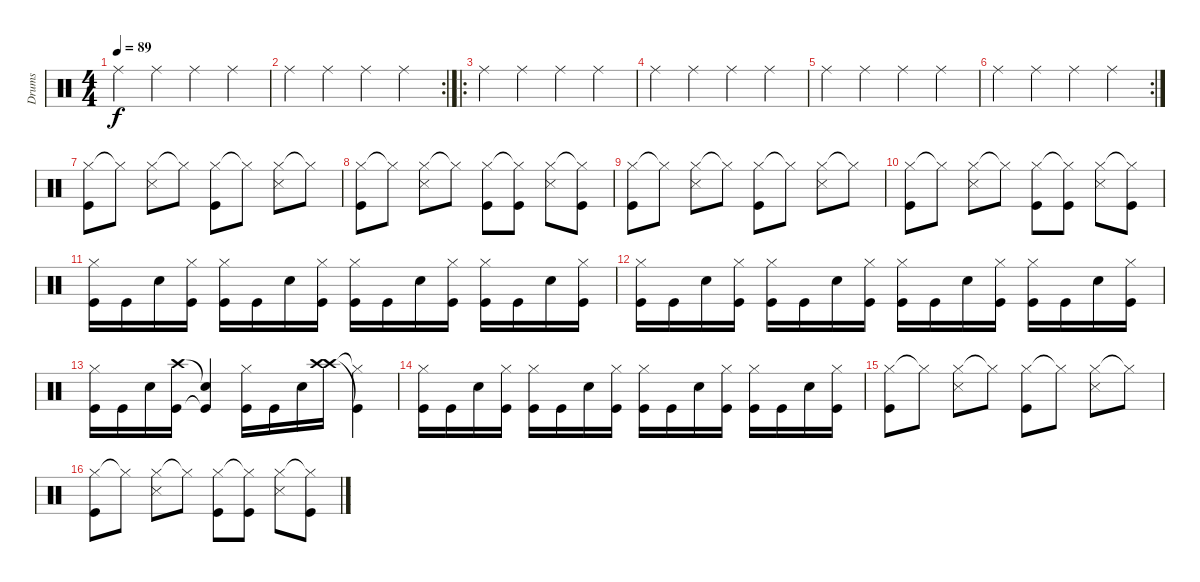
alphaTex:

\track ("Drums" "Drums") {instrument percussion}
\staff {score}
\articulation defaults
\ts (4 4)
\tempo 89
\clef neutral
\ks c "Ride (middle)".4{dy f} "Ride (middle)".4 "Ride (middle)".4 "Ride (middle)".4
|
\rc 2 "Ride (middle)".4 "Ride (middle)".4 "Ride (middle)".4 "Ride (middle)".4
|
\ro "Ride (middle)".4 "Ride (middle)".4 "Ride (middle)".4 "Ride (middle)".4
|
"Ride (middle)".4 "Ride (middle)".4 "Ride (middle)".4 "Ride (middle)".4 |
"Ride (middle)".4 "Ride (middle)".4 "Ride (middle)".4 "Ride (middle)".4 |
\rc 2 "Ride (middle)".4 "Ride (middle)".4 "Ride (middle)".4 "Ride (middle)".4
|
("Hi-Hat (closed)" "Kick (hit)").8 "Hi-Hat (closed)"{t}.8 ("Hi-Hat (closed)" "Snare (side stick) 3").8 "Hi-Hat (closed)"{t}.8 ("Hi-Hat (closed)" "Kick (hit)").8 "Hi-Hat (closed)"{t}.8 ("Hi-Hat (closed)" "Snare (side stick) 3").8 "Hi-Hat (closed)"{t}.8 |
("Hi-Hat (closed)" "Kick (hit)").8 "Hi-Hat (closed)"{t}.8 ("Hi-Hat (closed)" "Snare (side stick) 3").8 "Hi-Hat (closed)"{t}.8 ("Hi-Hat (closed)" "Kick (hit)").8 ("Hi-Hat (closed)"{t} "Kick (hit)").8 ("Hi-Hat (closed)" "Snare (side stick) 3").8 ("Hi-Hat (closed)"{t} "Kick (hit)").8 |
("Hi-Hat (closed)" "Kick (hit)").8 "Hi-Hat (closed)"{t}.8 ("Hi-Hat (closed)" "Snare (side stick) 3").8 "Hi-Hat (closed)"{t}.8 ("Hi-Hat (closed)" "Kick (hit)").8 "Hi-Hat (closed)"{t}.8 ("Hi-Hat (closed)" "Snare (side stick) 3").8 "Hi-Hat (closed)"{t}.8 |
("Hi-Hat (closed)" "Kick (hit)").8 "Hi-Hat (closed)"{t}.8 ("Hi-Hat (closed)" "Snare (side stick) 3").8 "Hi-Hat (closed)"{t}.8 ("Hi-Hat (closed)" "Kick (hit)").8 ("Hi-Hat (closed)"{t} "Kick (hit)").8 ("Hi-Hat (closed)" "Snare (side stick) 3").8 ("Hi-Hat (closed)"{t} "Kick (hit)").8 |
("Hi-Hat (closed)" "Kick (hit)").16 "Kick (hit)".16 "Snare (hit) 2".16 ("Hi-Hat (closed)" "Kick (hit)").16 ("Hi-Hat (closed)" "Kick (hit)").16 "Kick (hit)".16 "Snare (hit) 2".16 ("Hi-Hat (closed)" "Kick (hit)").16 ("Hi-Hat (closed)" "Kick (hit)").16 "Kick (hit)".16 "Snare (hit) 2".16 ("Hi-Hat (closed)" "Kick (hit)").16 ("Hi-Hat (closed)" "Kick (hit)").16 "Kick (hit)".16 "Snare (hit) 2".16 ("Hi-Hat (closed)" "Kick (hit)").16 |
("Hi-Hat (closed)" "Kick (hit)").16 "Kick (hit)".16 "Snare (hit) 2".16 ("Hi-Hat (closed)" "Kick (hit)").16 ("Hi-Hat (closed)" "Kick (hit)").16 "Kick (hit)".16 "Snare (hit) 2".16 ("Hi-Hat (closed)" "Kick (hit)").16 ("Hi-Hat (closed)" "Kick (hit)").16 "Kick (hit)".16 "Snare (hit) 2".16 ("Hi-Hat (closed)" "Kick (hit)").16 ("Hi-Hat (closed)" "Kick (hit)").16 "Kick (hit)".16 "Snare (hit) 2".16 ("Hi-Hat (closed)" "Kick (hit)").16 |
("Hi-Hat (closed)" "Kick (hit)").16 "Kick (hit)".16 "Snare (hit) 2".16 ("Crash high (hit)" "Kick (hit)").16 ("Snare (hit)"{t} "Kick (hit)"{t}).4 ("Hi-Hat (closed)" "Kick (hit)").16 "Kick (hit)".16 "Snare (hit) 2".16 ("Crash high (hit)" "Crash high (hit)").16 ("Hi-Hat (closed)"{t} "Kick (hit)"{t}).4 |
("Hi-Hat (closed)" "Kick (hit)").16 "Kick (hit)".16 "Snare (hit) 2".16 ("Hi-Hat (closed)" "Kick (hit)").16 ("Hi-Hat (closed)" "Kick (hit)").16 "Kick (hit)".16 "Snare (hit) 2".16 ("Hi-Hat (closed)" "Kick (hit)").16 ("Hi-Hat (closed)" "Kick (hit)").16 "Kick (hit)".16 "Snare (hit) 2".16 ("Hi-Hat (closed)" "Kick (hit)").16 ("Hi-Hat (closed)" "Kick (hit)").16 "Kick (hit)".16 "Snare (hit) 2".16 ("Hi-Hat (closed)" "Kick (hit)").16 |
("Hi-Hat (closed)" "Kick (hit)").8 "Hi-Hat (closed)"{t}.8 ("Hi-Hat (closed)" "Snare (side stick) 3").8 "Hi-Hat (closed)"{t}.8 ("Hi-Hat (closed)" "Kick (hit)").8 "Hi-Hat (closed)"{t}.8 ("Hi-Hat (closed)" "Snare (side stick) 3").8 "Hi-Hat (closed)"{t}.8 |
("Hi-Hat (closed)" "Kick (hit)").8 "Hi-Hat (closed)"{t}.8 ("Hi-Hat (closed)" "Snare (side stick) 3").8 "Hi-Hat (closed)"{t}.8 ("Hi-Hat (closed)" "Kick (hit)").8 ("Hi-Hat (closed)"{t} "Kick (hit)").8 ("Hi-Hat (closed)" "Snare (side stick) 3").8 ("Hi-Hat (closed)"{t} "Kick (hit)").8
